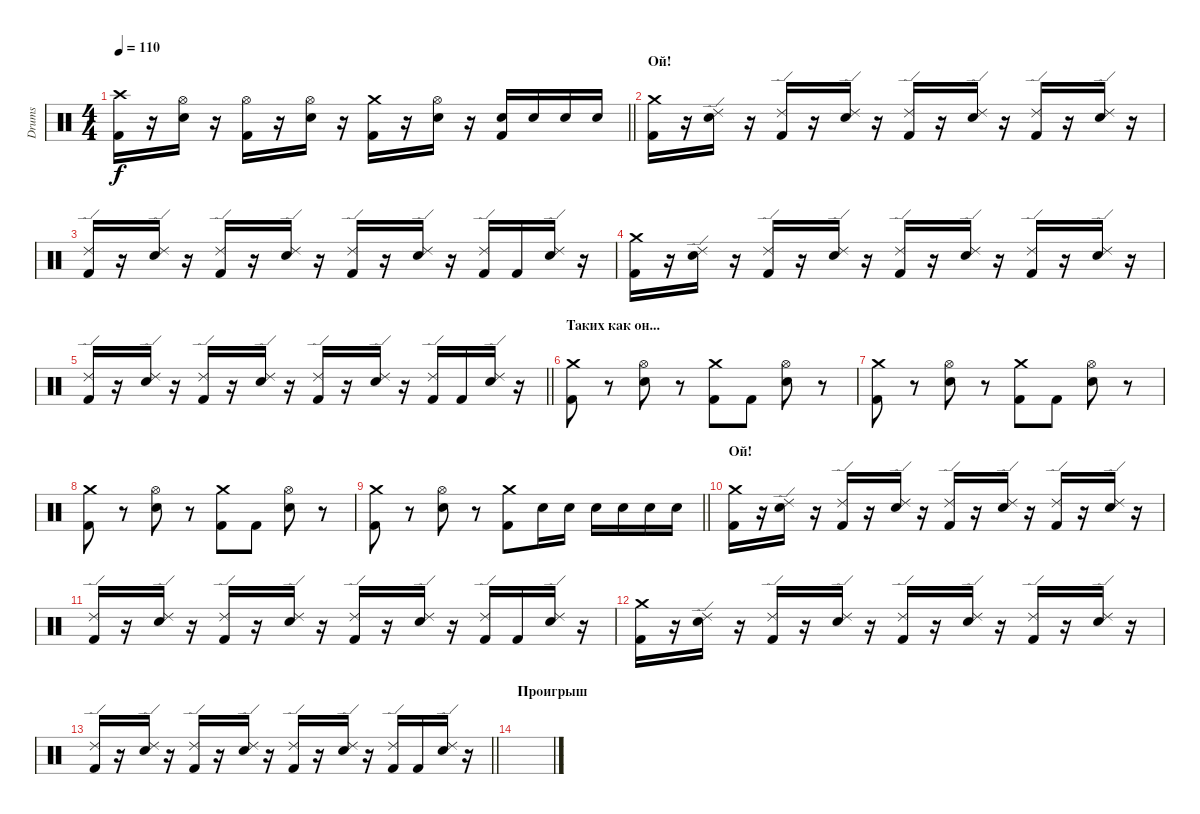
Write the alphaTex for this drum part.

\track ("Drums" "Drums") {instrument percussion}
\staff {score}
\articulation defaults
\ts (4 4)
\tempo 110
\clef neutral
\barLineRight lightlight
\ks c
("Kick (hit) 2" "Crash high (hit)").16{dy f} r.16 ("Electric Snare (hit)" "Hi-Hat (open)").16 r.16 ("Kick (hit) 2" "Hi-Hat (open)").16 r.16 ("Electric Snare (hit)" "Hi-Hat (open)").16 r.16 ("Kick (hit) 2" "Crash medium (hit)").16 r.16 ("Electric Snare (hit)" "Hi-Hat (open)").16 r.16 ("Electric Snare (hit)" "Kick (hit) 2").16 "Electric Snare (hit)".16 "Electric Snare (hit)".16 "Electric Snare (hit)".16 |
\section ("" "Ой!")
("Kick (hit) 2" "Crash medium (hit)").16 r.16 ("Electric Snare (hit)" "Ride (edge) 2").16 r.16 ("Kick (hit) 2" "Ride (edge) 2").16 r.16 ("Electric Snare (hit)" "Ride (edge) 2").16 r.16 ("Kick (hit) 2" "Ride (edge) 2").16 r.16 ("Electric Snare (hit)" "Ride (edge) 2").16 r.16 ("Kick (hit) 2" "Ride (edge) 2").16 r.16 ("Electric Snare (hit)" "Ride (edge) 2").16 r.16 |
("Kick (hit) 2" "Ride (edge) 2").16 r.16 ("Electric Snare (hit)" "Ride (edge) 2").16 r.16 ("Kick (hit) 2" "Ride (edge) 2").16 r.16 ("Electric Snare (hit)" "Ride (edge) 2").16 r.16 ("Kick (hit) 2" "Ride (edge) 2").16 r.16 ("Electric Snare (hit)" "Ride (edge) 2").16 r.16 ("Kick (hit) 2" "Ride (edge) 2").16 "Kick (hit) 2".16 ("Electric Snare (hit)" "Ride (edge) 2").16 r.16 |
("Kick (hit) 2" "Crash medium (hit)").16 r.16 ("Electric Snare (hit)" "Ride (edge) 2").16 r.16 ("Kick (hit) 2" "Ride (edge) 2").16 r.16 ("Electric Snare (hit)" "Ride (edge) 2").16 r.16 ("Kick (hit) 2" "Ride (edge) 2").16 r.16 ("Electric Snare (hit)" "Ride (edge) 2").16 r.16 ("Kick (hit) 2" "Ride (edge) 2").16 r.16 ("Electric Snare (hit)" "Ride (edge) 2").16 r.16 |
\barLineRight lightlight
("Kick (hit) 2" "Ride (edge) 2").16 r.16 ("Electric Snare (hit)" "Ride (edge) 2").16 r.16 ("Kick (hit) 2" "Ride (edge) 2").16 r.16 ("Electric Snare (hit)" "Ride (edge) 2").16 r.16 ("Kick (hit) 2" "Ride (edge) 2").16 r.16 ("Electric Snare (hit)" "Ride (edge) 2").16 r.16 ("Kick (hit) 2" "Ride (edge) 2").16 "Kick (hit) 2".16 ("Electric Snare (hit)" "Ride (edge) 2").16 r.16 |
\section ("" "Таких как он...")
("Kick (hit) 2" "Crash medium (hit)").8 r.8 ("Hi-Hat (open)" "Electric Snare (hit)").8 r.8 ("Kick (hit) 2" "Crash medium (hit)").8 "Kick (hit) 2".8 ("Hi-Hat (open)" "Electric Snare (hit)").8 r.8 |
("Kick (hit) 2" "Crash medium (hit)").8 r.8 ("Hi-Hat (open)" "Electric Snare (hit)").8 r.8 ("Kick (hit) 2" "Crash medium (hit)").8 "Kick (hit) 2".8 ("Hi-Hat (open)" "Electric Snare (hit)").8 r.8 |
("Kick (hit) 2" "Crash medium (hit)").8 r.8 ("Hi-Hat (open)" "Electric Snare (hit)").8 r.8 ("Kick (hit) 2" "Crash medium (hit)").8 "Kick (hit) 2".8 ("Hi-Hat (open)" "Electric Snare (hit)").8 r.8 |
\barLineRight lightlight
("Kick (hit) 2" "Crash medium (hit)").8 r.8 ("Hi-Hat (open)" "Electric Snare (hit)").8 r.8 ("Kick (hit) 2" "Crash medium (hit)").8 "Electric Snare (hit)".16 "Electric Snare (hit)".16 "Electric Snare (hit)".16 "Electric Snare (hit)".16 "Electric Snare (hit)".16 "Electric Snare (hit)".16 |
\section ("" "Ой!")
("Kick (hit) 2" "Crash medium (hit)").16 r.16 ("Electric Snare (hit)" "Ride (edge) 2").16 r.16 ("Kick (hit) 2" "Ride (edge) 2").16 r.16 ("Electric Snare (hit)" "Ride (edge) 2").16 r.16 ("Kick (hit) 2" "Ride (edge) 2").16 r.16 ("Electric Snare (hit)" "Ride (edge) 2").16 r.16 ("Kick (hit) 2" "Ride (edge) 2").16 r.16 ("Electric Snare (hit)" "Ride (edge) 2").16 r.16 |
("Kick (hit) 2" "Ride (edge) 2").16 r.16 ("Electric Snare (hit)" "Ride (edge) 2").16 r.16 ("Kick (hit) 2" "Ride (edge) 2").16 r.16 ("Electric Snare (hit)" "Ride (edge) 2").16 r.16 ("Kick (hit) 2" "Ride (edge) 2").16 r.16 ("Electric Snare (hit)" "Ride (edge) 2").16 r.16 ("Kick (hit) 2" "Ride (edge) 2").16 "Kick (hit) 2".16 ("Electric Snare (hit)" "Ride (edge) 2").16 r.16 |
("Kick (hit) 2" "Crash medium (hit)").16 r.16 ("Electric Snare (hit)" "Ride (edge) 2").16 r.16 ("Kick (hit) 2" "Ride (edge) 2").16 r.16 ("Electric Snare (hit)" "Ride (edge) 2").16 r.16 ("Kick (hit) 2" "Ride (edge) 2").16 r.16 ("Electric Snare (hit)" "Ride (edge) 2").16 r.16 ("Kick (hit) 2" "Ride (edge) 2").16 r.16 ("Electric Snare (hit)" "Ride (edge) 2").16 r.16 |
\barLineRight lightlight
("Kick (hit) 2" "Ride (edge) 2").16 r.16 ("Electric Snare (hit)" "Ride (edge) 2").16 r.16 ("Kick (hit) 2" "Ride (edge) 2").16 r.16 ("Electric Snare (hit)" "Ride (edge) 2").16 r.16 ("Kick (hit) 2" "Ride (edge) 2").16 r.16 ("Electric Snare (hit)" "Ride (edge) 2").16 r.16 ("Kick (hit) 2" "Ride (edge) 2").16 "Kick (hit) 2".16 ("Electric Snare (hit)" "Ride (edge) 2").16 r.16 |
\section ("" "Проигрыш")
